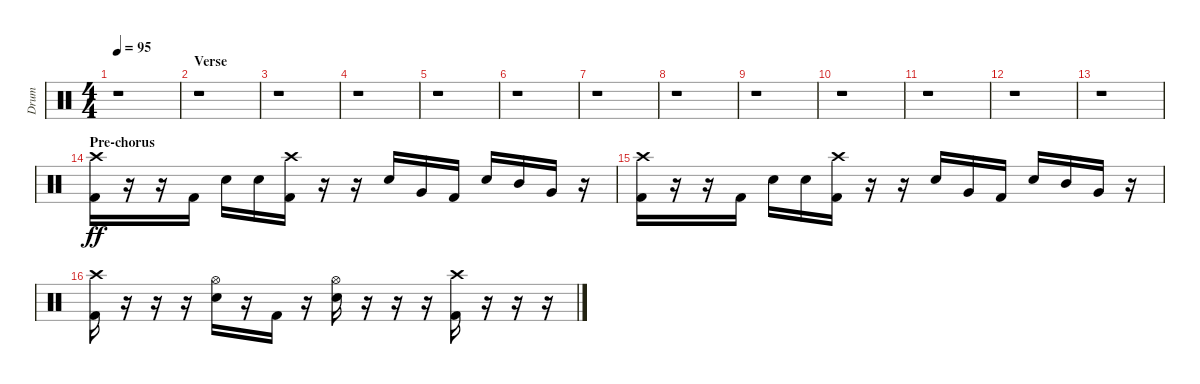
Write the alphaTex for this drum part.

\track ("Drum" "Drum") {instrument percussion}
\staff {score}
\articulation defaults
\ts (4 4)
\tempo 95
\clef neutral
\ks c
r.1{dy ff} |
\section ("" "Verse")
r.1 |
r.1 |
r.1 |
r.1 |
r.1 |
r.1 |
r.1 |
r.1 |
r.1 |
r.1 |
r.1 |
r.1 |
\section ("" "Pre-chorus")
("Crash high (hit)" "Kick (hit) 2").16 r.16 r.16 "Kick (hit) 2".16 "Electric Snare (hit)".16 "Electric Snare (hit)".16 ("Crash high (hit)" "Kick (hit) 2").16 r.16 r.16 "Electric Snare (hit)".16 "Very Low Tom (hit)".16 "Kick (hit) 2".16 "Electric Snare (hit)".16 "Mid Tom (hit)".16 "Very Low Tom (hit)".16 r.16 |
("Crash high (hit)" "Kick (hit) 2").16 r.16 r.16 "Kick (hit) 2".16 "Electric Snare (hit)".16 "Electric Snare (hit)".16 ("Crash high (hit)" "Kick (hit) 2").16 r.16 r.16 "Electric Snare (hit)".16 "Very Low Tom (hit)".16 "Kick (hit) 2".16 "Electric Snare (hit)".16 "Mid Tom (hit)".16 "Very Low Tom (hit)".16 r.16 |
("Crash high (hit)" "Kick (hit) 2").16 r.16 r.16 r.16 ("Hi-Hat (open)" "Electric Snare (hit)").16 r.16 "Kick (hit) 2".16 r.16 ("Hi-Hat (open)" "Electric Snare (hit)").16 r.16 r.16 r.16 ("Crash high (hit)" "Kick (hit) 2").16 r.16 r.16 r.16
